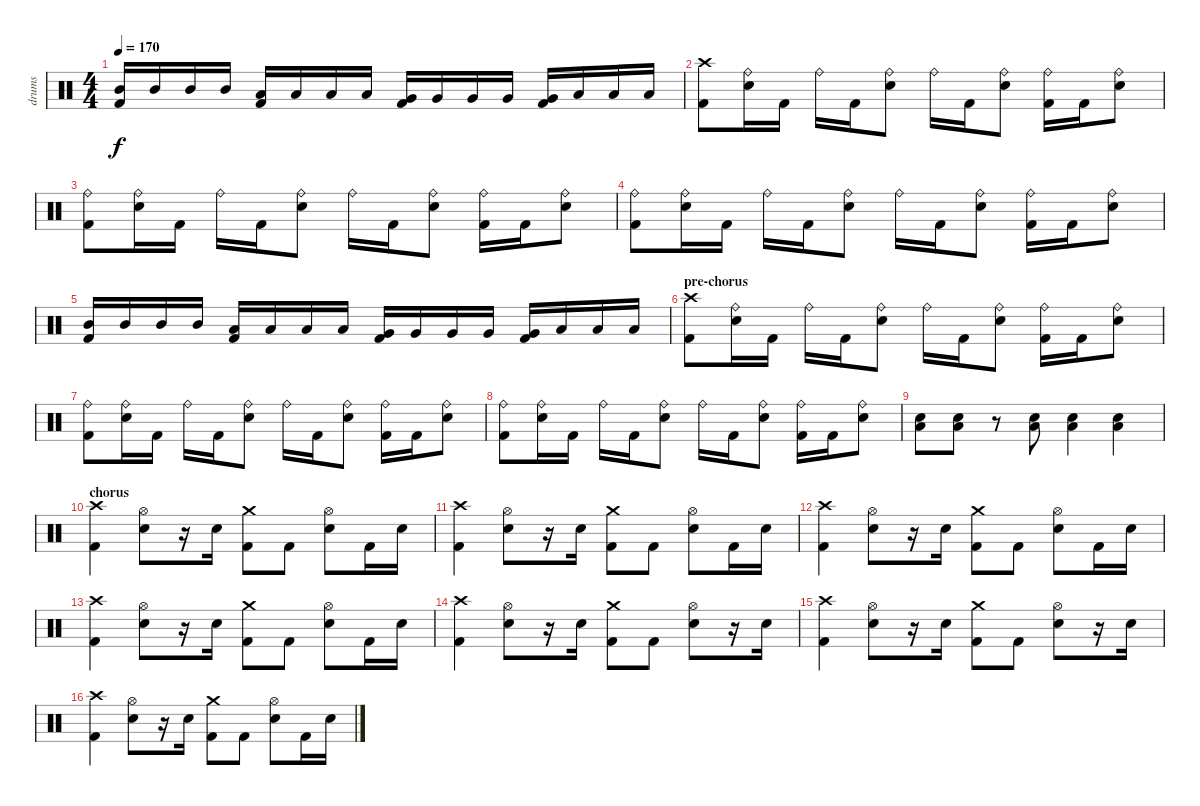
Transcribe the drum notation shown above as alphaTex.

\track ("drums" "drums") {instrument percussion}
\staff {score}
\articulation defaults
\ts (4 4)
\tempo 170
\clef neutral
\ks c
("Mid Tom (hit)" "Kick (hit) 2").16{dy f} "Mid Tom (hit)".16 "Mid Tom (hit)".16 "Mid Tom (hit)".16 ("Low Tom (hit)" "Kick (hit) 2").16 "Low Tom (hit)".16 "Low Tom (hit)".16 "Low Tom (hit)".16 ("Very Low Tom (hit)" "Kick (hit) 2").16 "Very Low Tom (hit)".16 "Very Low Tom (hit)".16 "Very Low Tom (hit)".16 ("Very Low Tom (hit)" "Kick (hit) 2").16 "Low Floor Tom (hit)".16 "Low Floor Tom (hit)".16 "Low Floor Tom (hit)".16 |
("Crash high (hit)" "Kick (hit) 2").8 ("Ride (bell)" "Electric Snare (hit)").16 "Kick (hit) 2".16 "Ride (bell)".16 "Kick (hit) 2".16 ("Ride (bell)" "Electric Snare (hit)").8 "Ride (bell)".16 "Kick (hit) 2".16 ("Ride (bell)" "Electric Snare (hit)").8 ("Ride (bell)" "Kick (hit) 2").16 "Kick (hit) 2".16 ("Ride (bell)" "Electric Snare (hit)").8 |
("Ride (bell)" "Kick (hit) 2").8 ("Ride (bell)" "Electric Snare (hit)").16 "Kick (hit) 2".16 "Ride (bell)".16 "Kick (hit) 2".16 ("Ride (bell)" "Electric Snare (hit)").8 "Ride (bell)".16 "Kick (hit) 2".16 ("Ride (bell)" "Electric Snare (hit)").8 ("Ride (bell)" "Kick (hit) 2").16 "Kick (hit) 2".16 ("Ride (bell)" "Electric Snare (hit)").8 |
("Ride (bell)" "Kick (hit) 2").8 ("Ride (bell)" "Electric Snare (hit)").16 "Kick (hit) 2".16 "Ride (bell)".16 "Kick (hit) 2".16 ("Ride (bell)" "Electric Snare (hit)").8 "Ride (bell)".16 "Kick (hit) 2".16 ("Ride (bell)" "Electric Snare (hit)").8 ("Ride (bell)" "Kick (hit) 2").16 "Kick (hit) 2".16 ("Ride (bell)" "Electric Snare (hit)").8 |
("Mid Tom (hit)" "Kick (hit) 2").16 "Mid Tom (hit)".16 "Mid Tom (hit)".16 "Mid Tom (hit)".16 ("Low Tom (hit)" "Kick (hit) 2").16 "Low Tom (hit)".16 "Low Tom (hit)".16 "Low Tom (hit)".16 ("Very Low Tom (hit)" "Kick (hit) 2").16 "Very Low Tom (hit)".16 "Very Low Tom (hit)".16 "Very Low Tom (hit)".16 ("Very Low Tom (hit)" "Kick (hit) 2").16 "Low Floor Tom (hit)".16 "Low Floor Tom (hit)".16 "Low Floor Tom (hit)".16 |
\section ("" "pre-chorus")
("Crash high (hit)" "Kick (hit) 2").8 ("Ride (bell)" "Electric Snare (hit)").16 "Kick (hit) 2".16 "Ride (bell)".16 "Kick (hit) 2".16 ("Ride (bell)" "Electric Snare (hit)").8 "Ride (bell)".16 "Kick (hit) 2".16 ("Ride (bell)" "Electric Snare (hit)").8 ("Ride (bell)" "Kick (hit) 2").16 "Kick (hit) 2".16 ("Ride (bell)" "Electric Snare (hit)").8 |
("Ride (bell)" "Kick (hit) 2").8 ("Ride (bell)" "Electric Snare (hit)").16 "Kick (hit) 2".16 "Ride (bell)".16 "Kick (hit) 2".16 ("Ride (bell)" "Electric Snare (hit)").8 "Ride (bell)".16 "Kick (hit) 2".16 ("Ride (bell)" "Electric Snare (hit)").8 ("Ride (bell)" "Kick (hit) 2").16 "Kick (hit) 2".16 ("Ride (bell)" "Electric Snare (hit)").8 |
("Ride (bell)" "Kick (hit) 2").8 ("Ride (bell)" "Electric Snare (hit)").16 "Kick (hit) 2".16 "Ride (bell)".16 "Kick (hit) 2".16 ("Ride (bell)" "Electric Snare (hit)").8 "Ride (bell)".16 "Kick (hit) 2".16 ("Ride (bell)" "Electric Snare (hit)").8 ("Ride (bell)" "Kick (hit) 2").16 "Kick (hit) 2".16 ("Ride (bell)" "Electric Snare (hit)").8 |
("Low Floor Tom (hit)" "Electric Snare (hit)").8 ("Low Floor Tom (hit)" "Electric Snare (hit)").8 r.8 ("Low Floor Tom (hit)" "Electric Snare (hit)").8 ("Low Floor Tom (hit)" "Electric Snare (hit)").4 ("Low Floor Tom (hit)" "Electric Snare (hit)").4 |
\section ("" "chorus")
("Crash high (hit)" "Kick (hit) 2").4 ("Hi-Hat (open)" "Electric Snare (hit)").8 r.16 "Electric Snare (hit)".16 ("Crash medium (hit)" "Kick (hit) 2").8 "Kick (hit) 2".8 ("Hi-Hat (open)" "Electric Snare (hit)").8 "Kick (hit) 2".16 "Electric Snare (hit)".16 |
("Crash high (hit)" "Kick (hit) 2").4 ("Hi-Hat (open)" "Electric Snare (hit)").8 r.16 "Electric Snare (hit)".16 ("Crash medium (hit)" "Kick (hit) 2").8 "Kick (hit) 2".8 ("Hi-Hat (open)" "Electric Snare (hit)").8 "Kick (hit) 2".16 "Electric Snare (hit)".16 |
("Crash high (hit)" "Kick (hit) 2").4 ("Hi-Hat (open)" "Electric Snare (hit)").8 r.16 "Electric Snare (hit)".16 ("Crash medium (hit)" "Kick (hit) 2").8 "Kick (hit) 2".8 ("Hi-Hat (open)" "Electric Snare (hit)").8 "Kick (hit) 2".16 "Electric Snare (hit)".16 |
("Crash high (hit)" "Kick (hit) 2").4 ("Hi-Hat (open)" "Electric Snare (hit)").8 r.16 "Electric Snare (hit)".16 ("Crash medium (hit)" "Kick (hit) 2").8 "Kick (hit) 2".8 ("Hi-Hat (open)" "Electric Snare (hit)").8 "Kick (hit) 2".16 "Electric Snare (hit)".16 |
("Crash high (hit)" "Kick (hit) 2").4 ("Hi-Hat (open)" "Electric Snare (hit)").8 r.16 "Electric Snare (hit)".16 ("Crash medium (hit)" "Kick (hit) 2").8 "Kick (hit) 2".8 ("Hi-Hat (open)" "Electric Snare (hit)").8 r.16 "Electric Snare (hit)".16 |
("Crash high (hit)" "Kick (hit) 2").4 ("Hi-Hat (open)" "Electric Snare (hit)").8 r.16 "Electric Snare (hit)".16 ("Crash medium (hit)" "Kick (hit) 2").8 "Kick (hit) 2".8 ("Hi-Hat (open)" "Electric Snare (hit)").8 r.16 "Electric Snare (hit)".16 |
("Crash high (hit)" "Kick (hit) 2").4 ("Hi-Hat (open)" "Electric Snare (hit)").8 r.16 "Electric Snare (hit)".16 ("Crash medium (hit)" "Kick (hit) 2").8 "Kick (hit) 2".8 ("Hi-Hat (open)" "Electric Snare (hit)").8 "Kick (hit) 2".16 "Electric Snare (hit)".16
